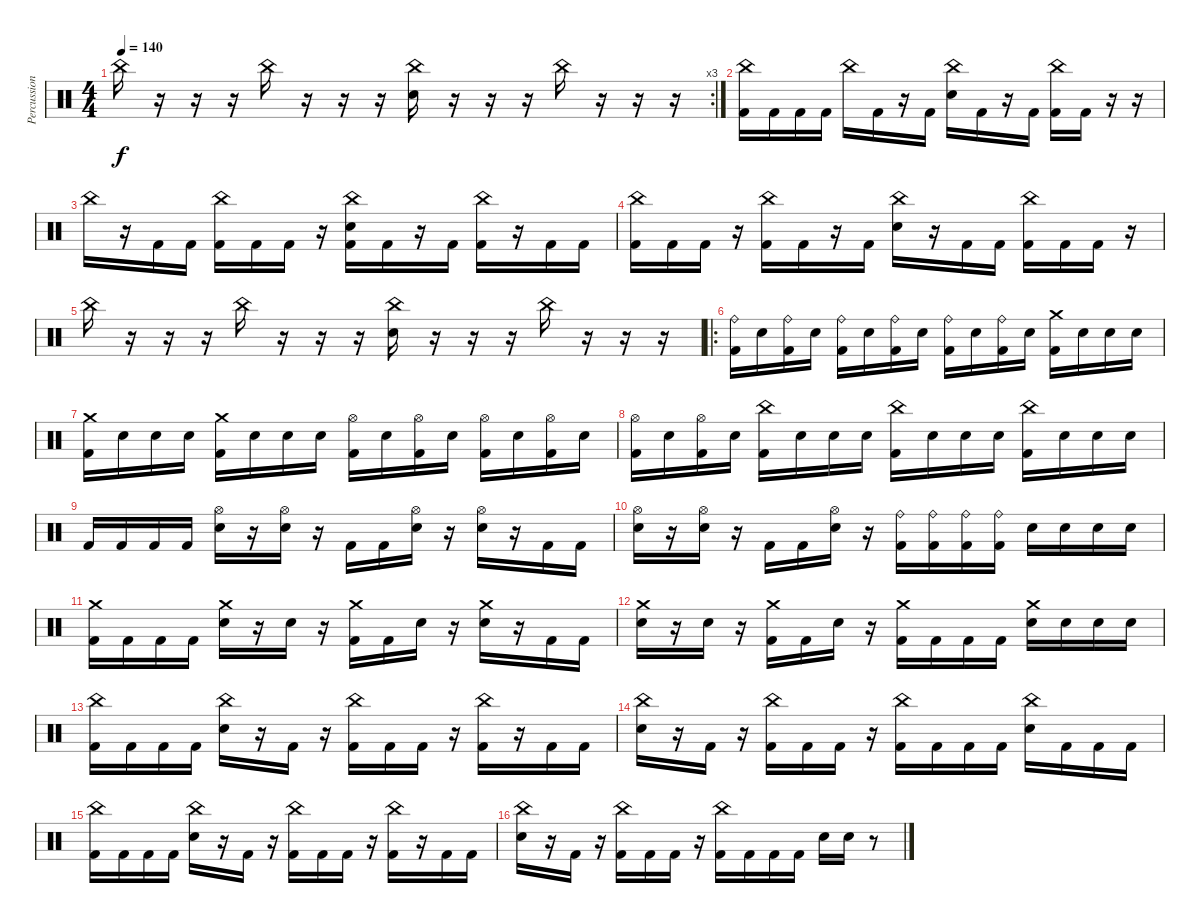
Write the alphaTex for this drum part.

\track ("Percussion" "Percussion") {instrument percussion}
\staff {score}
\articulation defaults
\rc 3
\ts (4 4)
\tempo 140
\clef neutral
\ks c "China (hit)".16{dy f}
r.16 r.16 r.16 "China (hit)".16 r.16 r.16 r.16 ("China (hit)" "Electric Snare (hit)").16 r.16 r.16 r.16 "China (hit)".16 r.16 r.16 r.16 |
("China (hit)" "Kick (hit) 2").16 "Kick (hit) 2".16 "Kick (hit) 2".16 "Kick (hit) 2".16 "China (hit)".16 "Kick (hit) 2".16 r.16 "Kick (hit) 2".16 ("China (hit)" "Electric Snare (hit)").16 "Kick (hit) 2".16 r.16 "Kick (hit) 2".16 ("China (hit)" "Kick (hit) 2").16 "Kick (hit) 2".16 r.16 r.16 |
"China (hit)".16 r.16 "Kick (hit) 2".16 "Kick (hit) 2".16 ("China (hit)" "Kick (hit) 2").16 "Kick (hit) 2".16 "Kick (hit) 2".16 r.16 ("China (hit)" "Kick (hit) 2" "Electric Snare (hit)").16 "Kick (hit) 2".16 r.16 "Kick (hit) 2".16 ("China (hit)" "Kick (hit) 2").16 r.16 "Kick (hit) 2".16 "Kick (hit) 2".16 |
("China (hit)" "Kick (hit) 2").16 "Kick (hit) 2".16 "Kick (hit) 2".16 r.16 ("China (hit)" "Kick (hit) 2").16 "Kick (hit) 2".16 r.16 "Kick (hit) 2".16 ("China (hit)" "Electric Snare (hit)").16 r.16 "Kick (hit) 2".16 "Kick (hit) 2".16 ("China (hit)" "Kick (hit) 2").16 "Kick (hit) 2".16 "Kick (hit) 2".16 r.16 |
"China (hit)".16 r.16 r.16 r.16 "China (hit)".16 r.16 r.16 r.16 ("China (hit)" "Electric Snare (hit)").16 r.16 r.16 r.16 "China (hit)".16 r.16 r.16 r.16 |
\ro
("Ride (bell)" "Kick (hit) 2").16 "Electric Snare (hit)".16 ("Ride (bell)" "Kick (hit) 2").16 "Electric Snare (hit)".16 ("Ride (bell)" "Kick (hit) 2").16 "Electric Snare (hit)".16 ("Ride (bell)" "Kick (hit) 2").16 "Electric Snare (hit)".16 ("Ride (bell)" "Kick (hit) 2").16 "Electric Snare (hit)".16 ("Ride (bell)" "Kick (hit) 2").16 "Electric Snare (hit)".16 ("Crash medium (hit)" "Kick (hit) 2").16 "Electric Snare (hit)".16 "Electric Snare (hit)".16 "Electric Snare (hit)".16 |
("Crash medium (hit)" "Kick (hit) 2").16 "Electric Snare (hit)".16 "Electric Snare (hit)".16 "Electric Snare (hit)".16 ("Crash medium (hit)" "Kick (hit) 2").16 "Electric Snare (hit)".16 "Electric Snare (hit)".16 "Electric Snare (hit)".16 ("Hi-Hat (open)" "Kick (hit) 2").16 "Electric Snare (hit)".16 ("Hi-Hat (open)" "Kick (hit) 2").16 "Electric Snare (hit)".16 ("Hi-Hat (open)" "Kick (hit) 2").16 "Electric Snare (hit)".16 ("Hi-Hat (open)" "Kick (hit) 2").16 "Electric Snare (hit)".16 |
("Hi-Hat (open)" "Kick (hit) 2").16 "Electric Snare (hit)".16 ("Hi-Hat (open)" "Kick (hit) 2").16 "Electric Snare (hit)".16 ("China (hit)" "Kick (hit) 2").16 "Electric Snare (hit)".16 "Electric Snare (hit)".16 "Electric Snare (hit)".16 ("China (hit)" "Kick (hit) 2").16 "Electric Snare (hit)".16 "Electric Snare (hit)".16 "Electric Snare (hit)".16 ("China (hit)" "Kick (hit) 2").16 "Electric Snare (hit)".16 "Electric Snare (hit)".16 "Electric Snare (hit)".16 |
"Kick (hit) 2".16 "Kick (hit) 2".16 "Kick (hit) 2".16 "Kick (hit) 2".16 ("Hi-Hat (open)" "Electric Snare (hit)").16 r.16 ("Hi-Hat (open)" "Electric Snare (hit)").16 r.16 "Kick (hit) 2".16 "Kick (hit) 2".16 ("Hi-Hat (open)" "Electric Snare (hit)").16 r.16 ("Hi-Hat (open)" "Electric Snare (hit)").16 r.16 "Kick (hit) 2".16 "Kick (hit) 2".16 |
("Hi-Hat (open)" "Electric Snare (hit)").16 r.16 ("Hi-Hat (open)" "Electric Snare (hit)").16 r.16 "Kick (hit) 2".16 "Kick (hit) 2".16 ("Hi-Hat (open)" "Electric Snare (hit)").16 r.16 ("Ride (bell)" "Kick (hit) 2").16 ("Ride (bell)" "Kick (hit) 2").16 ("Ride (bell)" "Kick (hit) 2").16 ("Ride (bell)" "Kick (hit) 2").16 "Electric Snare (hit)".16 "Electric Snare (hit)".16 "Electric Snare (hit)".16 "Electric Snare (hit)".16 |
("Crash medium (hit)" "Kick (hit) 2").16 "Kick (hit) 2".16 "Kick (hit) 2".16 "Kick (hit) 2".16 ("Crash medium (hit)" "Electric Snare (hit)").16 r.16 "Electric Snare (hit)".16 r.16 ("Crash medium (hit)" "Kick (hit) 2").16 "Kick (hit) 2".16 "Electric Snare (hit)".16 r.16 ("Crash medium (hit)" "Electric Snare (hit)").16 r.16 "Kick (hit) 2".16 "Kick (hit) 2".16 |
("Crash medium (hit)" "Electric Snare (hit)").16 r.16 "Electric Snare (hit)".16 r.16 ("Crash medium (hit)" "Kick (hit) 2").16 "Kick (hit) 2".16 "Electric Snare (hit)".16 r.16 ("Crash medium (hit)" "Kick (hit) 2").16 "Kick (hit) 2".16 "Kick (hit) 2".16 "Kick (hit) 2".16 ("Crash medium (hit)" "Electric Snare (hit)").16 "Electric Snare (hit)".16 "Electric Snare (hit)".16 "Electric Snare (hit)".16 |
("China (hit)" "Kick (hit) 2").16 "Kick (hit) 2".16 "Kick (hit) 2".16 "Kick (hit) 2".16 ("China (hit)" "Electric Snare (hit)").16 r.16 "Kick (hit) 2".16 r.16 ("China (hit)" "Kick (hit) 2").16 "Kick (hit) 2".16 "Kick (hit) 2".16 r.16 ("China (hit)" "Kick (hit) 2").16 r.16 "Kick (hit) 2".16 "Kick (hit) 2".16 |
("China (hit)" "Electric Snare (hit)").16 r.16 "Kick (hit) 2".16 r.16 ("China (hit)" "Kick (hit) 2").16 "Kick (hit) 2".16 "Kick (hit) 2".16 r.16 ("China (hit)" "Kick (hit) 2").16 "Kick (hit) 2".16 "Kick (hit) 2".16 "Kick (hit) 2".16 ("China (hit)" "Electric Snare (hit)").16 "Kick (hit) 2".16 "Kick (hit) 2".16 "Kick (hit) 2".16 |
("China (hit)" "Kick (hit) 2").16 "Kick (hit) 2".16 "Kick (hit) 2".16 "Kick (hit) 2".16 ("China (hit)" "Electric Snare (hit)").16 r.16 "Kick (hit) 2".16 r.16 ("China (hit)" "Kick (hit) 2").16 "Kick (hit) 2".16 "Kick (hit) 2".16 r.16 ("China (hit)" "Kick (hit) 2").16 r.16 "Kick (hit) 2".16 "Kick (hit) 2".16 |
("China (hit)" "Electric Snare (hit)").16 r.16 "Kick (hit) 2".16 r.16 ("China (hit)" "Kick (hit) 2").16 "Kick (hit) 2".16 "Kick (hit) 2".16 r.16 ("China (hit)" "Kick (hit) 2").16 "Kick (hit) 2".16 "Kick (hit) 2".16 "Kick (hit) 2".16 "Electric Snare (hit)".16 "Electric Snare (hit)".16 r.8
